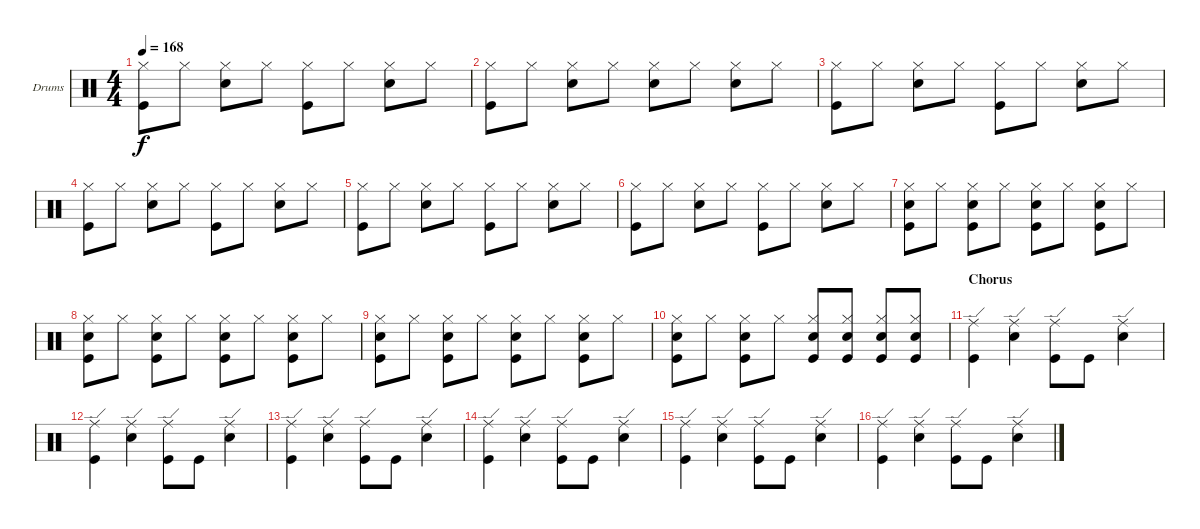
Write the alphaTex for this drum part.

\bracketExtendMode groupsimilarinstruments
\firstSystemTrackNameOrientation horizontal
\otherSystemsTrackNameOrientation horizontal
\track ("Drumkit" "Drums") {instrument percussion}
\staff {score}
\articulation defaults
\ts (4 4)
\tempo 168
\clef neutral
\ks c
("Kick (hit)" "Hi-Hat (closed)").8{dy f} "Hi-Hat (closed)".8 ("Snare (hit) 2" "Hi-Hat (closed)").8 "Hi-Hat (closed)".8 ("Kick (hit)" "Hi-Hat (closed)").8 "Hi-Hat (closed)".8 ("Snare (hit) 2" "Hi-Hat (closed)").8 "Hi-Hat (closed)".8 |
("Kick (hit)" "Hi-Hat (closed)").8 "Hi-Hat (closed)".8 ("Snare (hit) 2" "Hi-Hat (closed)").8 "Hi-Hat (closed)".8 ("Snare (hit) 2" "Hi-Hat (closed)").8 "Hi-Hat (closed)".8 ("Snare (hit) 2" "Hi-Hat (closed)").8 "Hi-Hat (closed)".8 |
("Kick (hit)" "Hi-Hat (closed)").8 "Hi-Hat (closed)".8 ("Snare (hit) 2" "Hi-Hat (closed)").8 "Hi-Hat (closed)".8 ("Kick (hit)" "Hi-Hat (closed)").8 "Hi-Hat (closed)".8 ("Snare (hit) 2" "Hi-Hat (closed)").8 "Hi-Hat (closed)".8 |
("Kick (hit)" "Hi-Hat (closed)").8 "Hi-Hat (closed)".8 ("Snare (hit) 2" "Hi-Hat (closed)").8 "Hi-Hat (closed)".8 ("Kick (hit)" "Hi-Hat (closed)").8 "Hi-Hat (closed)".8 ("Snare (hit) 2" "Hi-Hat (closed)").8 "Hi-Hat (closed)".8 |
("Kick (hit)" "Hi-Hat (closed)").8 "Hi-Hat (closed)".8 ("Snare (hit) 2" "Hi-Hat (closed)").8 "Hi-Hat (closed)".8 ("Kick (hit)" "Hi-Hat (closed)").8 "Hi-Hat (closed)".8 ("Snare (hit) 2" "Hi-Hat (closed)").8 "Hi-Hat (closed)".8 |
("Kick (hit)" "Hi-Hat (closed)").8 "Hi-Hat (closed)".8 ("Snare (hit) 2" "Hi-Hat (closed)").8 "Hi-Hat (closed)".8 ("Kick (hit)" "Hi-Hat (closed)").8 "Hi-Hat (closed)".8 ("Snare (hit) 2" "Hi-Hat (closed)").8 "Hi-Hat (closed)".8 |
("Snare (hit) 2" "Kick (hit)" "Hi-Hat (closed)").8 "Hi-Hat (closed)".8 ("Snare (hit) 2" "Kick (hit)" "Hi-Hat (closed)").8 "Hi-Hat (closed)".8 ("Snare (hit) 2" "Kick (hit)" "Hi-Hat (closed)").8 "Hi-Hat (closed)".8 ("Snare (hit) 2" "Kick (hit)" "Hi-Hat (closed)").8 "Hi-Hat (closed)".8 |
("Snare (hit) 2" "Kick (hit)" "Hi-Hat (closed)").8 "Hi-Hat (closed)".8 ("Snare (hit) 2" "Kick (hit)" "Hi-Hat (closed)").8 "Hi-Hat (closed)".8 ("Snare (hit) 2" "Kick (hit)" "Hi-Hat (closed)").8 "Hi-Hat (closed)".8 ("Snare (hit) 2" "Kick (hit)" "Hi-Hat (closed)").8 "Hi-Hat (closed)".8 |
("Snare (hit) 2" "Kick (hit)" "Hi-Hat (closed)").8 "Hi-Hat (closed)".8 ("Snare (hit) 2" "Kick (hit)" "Hi-Hat (closed)").8 "Hi-Hat (closed)".8 ("Snare (hit) 2" "Kick (hit)" "Hi-Hat (closed)").8 "Hi-Hat (closed)".8 ("Snare (hit) 2" "Kick (hit)" "Hi-Hat (closed)").8 "Hi-Hat (closed)".8 |
("Snare (hit) 2" "Kick (hit)" "Hi-Hat (closed)").8 "Hi-Hat (closed)".8 ("Snare (hit) 2" "Kick (hit)" "Hi-Hat (closed)").8 "Hi-Hat (closed)".8 ("Snare (hit) 2" "Kick (hit)" "Hi-Hat (closed)").8 ("Snare (hit) 2" "Kick (hit)" "Hi-Hat (closed)").8 ("Snare (hit) 2" "Kick (hit)" "Hi-Hat (closed)").8 ("Snare (hit) 2" "Kick (hit)" "Hi-Hat (closed)").8 |
\section ("" "Chorus")
("Kick (hit)" "Ride (edge)").4 ("Snare (hit) 2" "Ride (edge)").4 ("Kick (hit)" "Ride (edge)").8 "Kick (hit)".8 ("Snare (hit) 2" "Ride (edge)").4 |
("Kick (hit)" "Ride (edge)").4 ("Snare (hit) 2" "Ride (edge)").4 ("Kick (hit)" "Ride (edge)").8 "Kick (hit)".8 ("Snare (hit) 2" "Ride (edge)").4 |
("Kick (hit)" "Ride (edge)").4 ("Snare (hit) 2" "Ride (edge)").4 ("Kick (hit)" "Ride (edge)").8 "Kick (hit)".8 ("Snare (hit) 2" "Ride (edge)").4 |
("Kick (hit)" "Ride (edge)").4 ("Snare (hit) 2" "Ride (edge)").4 ("Kick (hit)" "Ride (edge)").8 "Kick (hit)".8 ("Snare (hit) 2" "Ride (edge)").4 |
("Kick (hit)" "Ride (edge)").4 ("Snare (hit) 2" "Ride (edge)").4 ("Kick (hit)" "Ride (edge)").8 "Kick (hit)".8 ("Snare (hit) 2" "Ride (edge)").4 |
("Kick (hit)" "Ride (edge)").4 ("Snare (hit) 2" "Ride (edge)").4 ("Kick (hit)" "Ride (edge)").8 "Kick (hit)".8 ("Snare (hit) 2" "Ride (edge)").4
